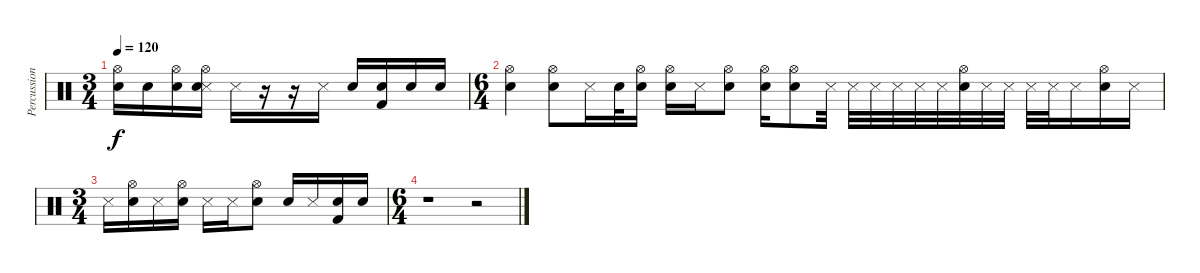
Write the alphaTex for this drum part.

\track ("Percussions" "Percussion") {instrument percussion}
\staff {score}
\articulation defaults
\ts (3 4)
\tempo 120
\clef neutral
\ks c
("Hi-Hat (open)" "Snare (hit) 2").16{dy f} "Snare (hit) 2".16 ("Hi-Hat (open)" "Snare (hit) 2").16 ("Hi-Hat (open)" "Metronome (hit)" "Snare (hit) 2").16 "Metronome (hit)".16 r.16 r.16 "Metronome (hit)".16 "Snare (hit) 2".16 ("Kick (hit) 2" "Snare (hit) 2").16 "Snare (hit) 2".16 "Snare (hit) 2".16 |
\ts (6 4)
("Hi-Hat (open)" "Snare (hit) 2").4 ("Hi-Hat (open)" "Snare (hit) 2").8 "Metronome (hit)".16 "Snare (hit) 2".32 ("Hi-Hat (open)" "Snare (hit) 2").16 ("Hi-Hat (open)" "Snare (hit) 2").16 "Metronome (hit)".16 ("Hi-Hat (open)" "Snare (hit) 2").8 ("Hi-Hat (open)" "Snare (hit) 2").16 ("Hi-Hat (open)" "Snare (hit) 2").8 "Metronome (hit)".32 "Metronome (hit)".32 "Metronome (hit)".32 "Metronome (hit)".32 "Metronome (hit)".32 "Metronome (hit)".32 ("Hi-Hat (open)" "Snare (hit) 2").32 "Metronome (hit)".32 "Metronome (hit)".32 "Metronome (hit)".32 "Metronome (hit)".32 "Metronome (hit)".16 ("Hi-Hat (open)" "Snare (hit) 2").16 "Metronome (hit)".16 |
\ts (3 4)
"Metronome (hit)".16 ("Hi-Hat (open)" "Snare (hit) 2").16 "Metronome (hit)".16 ("Hi-Hat (open)" "Snare (hit) 2").16 "Metronome (hit)".16 "Metronome (hit)".16 ("Hi-Hat (open)" "Snare (hit) 2").8 "Snare (hit) 2".16 "Metronome (hit)".16 ("Kick (hit) 2" "Snare (hit) 2").16 "Snare (hit) 2".16 |
\ts (6 4)
r.1 r.2
